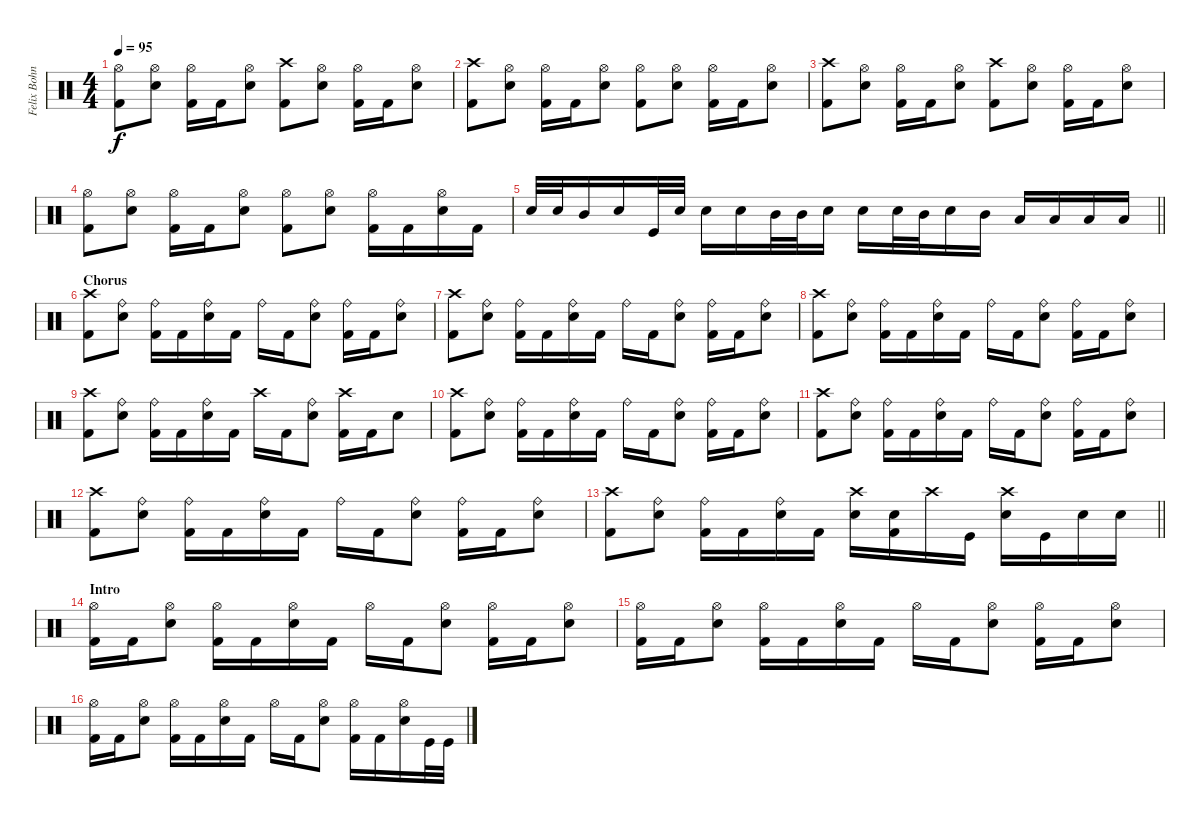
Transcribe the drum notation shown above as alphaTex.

\track ("Felix Bohnke" "Felix Bohn") {instrument percussion}
\staff {score}
\articulation defaults
\ts (4 4)
\tempo 95
\clef neutral
\ks c
("Hi-Hat (open)" "Kick (hit) 2").8{dy f} ("Hi-Hat (open)" "Snare (hit) 2").8 ("Hi-Hat (open)" "Kick (hit) 2").16 "Kick (hit) 2".16 ("Hi-Hat (open)" "Snare (hit) 2").8 ("Crash high (hit)" "Kick (hit) 2").8 ("Hi-Hat (open)" "Snare (hit) 2").8 ("Hi-Hat (open)" "Kick (hit) 2").16 "Kick (hit) 2".16 ("Hi-Hat (open)" "Snare (hit) 2").8 |
("Crash high (hit)" "Kick (hit) 2").8 ("Hi-Hat (open)" "Snare (hit) 2").8 ("Hi-Hat (open)" "Kick (hit) 2").16 "Kick (hit) 2".16 ("Hi-Hat (open)" "Snare (hit) 2").8 ("Hi-Hat (open)" "Kick (hit) 2").8 ("Hi-Hat (open)" "Snare (hit) 2").8 ("Hi-Hat (open)" "Kick (hit) 2").16 "Kick (hit) 2".16 ("Hi-Hat (open)" "Snare (hit) 2").8 |
("Crash high (hit)" "Kick (hit) 2").8 ("Hi-Hat (open)" "Snare (hit) 2").8 ("Hi-Hat (open)" "Kick (hit) 2").16 "Kick (hit) 2".16 ("Hi-Hat (open)" "Snare (hit) 2").8 ("Crash high (hit)" "Kick (hit) 2").8 ("Hi-Hat (open)" "Snare (hit) 2").8 ("Hi-Hat (open)" "Kick (hit) 2").16 "Kick (hit) 2".16 ("Hi-Hat (open)" "Snare (hit) 2").8 |
("Hi-Hat (open)" "Kick (hit) 2").8 ("Hi-Hat (open)" "Snare (hit) 2").8 ("Hi-Hat (open)" "Kick (hit) 2").16 "Kick (hit) 2".16 ("Hi-Hat (open)" "Snare (hit) 2").8 ("Hi-Hat (open)" "Kick (hit) 2").8 ("Hi-Hat (open)" "Snare (hit) 2").8 ("Hi-Hat (open)" "Kick (hit) 2").16 "Kick (hit) 2".16 ("Hi-Hat (open)" "Snare (hit) 2").16 "Kick (hit) 2".16 |
\barLineRight lightlight "Snare (hit) 2".32 "Snare (hit) 2".32 "Mid Tom (hit)".16 "Snare (hit) 2".16 "Kick (hit)".32 "Snare (hit) 2".32 "Snare (hit) 2".16 "Snare (hit) 2".16 "Mid Tom (hit)".32 "Mid Tom (hit)".32 "Snare (hit) 2".16 "Snare (hit) 2".16 "Snare (hit) 2".32 "Mid Tom (hit)".32 "Snare (hit) 2".16 "Mid Tom (hit)".16 "Low Tom (hit)".16 "Low Tom (hit)".16 "Low Tom (hit)".16 "Low Tom (hit)".16
|
\section ("" "Chorus")
("Crash high (hit)" "Kick (hit) 2").8 ("Ride (bell)" "Snare (hit) 2").8 ("Ride (bell)" "Kick (hit) 2").16 "Kick (hit) 2".16 ("Ride (bell)" "Snare (hit) 2").16 "Kick (hit) 2".16 "Ride (bell)".16 "Kick (hit) 2".16 ("Ride (bell)" "Snare (hit) 2").8 ("Ride (bell)" "Kick (hit) 2").16 "Kick (hit) 2".16 ("Ride (bell)" "Snare (hit) 2").8 |
("Crash high (hit)" "Kick (hit) 2").8 ("Ride (bell)" "Snare (hit) 2").8 ("Ride (bell)" "Kick (hit) 2").16 "Kick (hit) 2".16 ("Ride (bell)" "Snare (hit) 2").16 "Kick (hit) 2".16 "Ride (bell)".16 "Kick (hit) 2".16 ("Ride (bell)" "Snare (hit) 2").8 ("Ride (bell)" "Kick (hit) 2").16 "Kick (hit) 2".16 ("Ride (bell)" "Snare (hit) 2").8 |
("Crash high (hit)" "Kick (hit) 2").8 ("Ride (bell)" "Snare (hit) 2").8 ("Ride (bell)" "Kick (hit) 2").16 "Kick (hit) 2".16 ("Ride (bell)" "Snare (hit) 2").16 "Kick (hit) 2".16 "Ride (bell)".16 "Kick (hit) 2".16 ("Ride (bell)" "Snare (hit) 2").8 ("Ride (bell)" "Kick (hit) 2").16 "Kick (hit) 2".16 ("Ride (bell)" "Snare (hit) 2").8 |
("Crash high (hit)" "Kick (hit) 2").8 ("Ride (bell)" "Snare (hit) 2").8 ("Ride (bell)" "Kick (hit) 2").16 "Kick (hit) 2".16 ("Ride (bell)" "Snare (hit) 2").16 "Kick (hit) 2".16 "Crash high (hit)".16 "Kick (hit) 2".16 ("Ride (bell)" "Snare (hit) 2").8 ("Crash high (hit)" "Kick (hit) 2").16 "Kick (hit) 2".16 "Snare (hit) 2".8 |
("Crash high (hit)" "Kick (hit) 2").8 ("Ride (bell)" "Snare (hit) 2").8 ("Ride (bell)" "Kick (hit) 2").16 "Kick (hit) 2".16 ("Ride (bell)" "Snare (hit) 2").16 "Kick (hit) 2".16 "Ride (bell)".16 "Kick (hit) 2".16 ("Ride (bell)" "Snare (hit) 2").8 ("Ride (bell)" "Kick (hit) 2").16 "Kick (hit) 2".16 ("Ride (bell)" "Snare (hit) 2").8 |
("Crash high (hit)" "Kick (hit) 2").8 ("Ride (bell)" "Snare (hit) 2").8 ("Ride (bell)" "Kick (hit) 2").16 "Kick (hit) 2".16 ("Ride (bell)" "Snare (hit) 2").16 "Kick (hit) 2".16 "Ride (bell)".16 "Kick (hit) 2".16 ("Ride (bell)" "Snare (hit) 2").8 ("Ride (bell)" "Kick (hit) 2").16 "Kick (hit) 2".16 ("Ride (bell)" "Snare (hit) 2").8 |
("Crash high (hit)" "Kick (hit) 2").8 ("Ride (bell)" "Snare (hit) 2").8 ("Ride (bell)" "Kick (hit) 2").16 "Kick (hit) 2".16 ("Ride (bell)" "Snare (hit) 2").16 "Kick (hit) 2".16 "Ride (bell)".16 "Kick (hit) 2".16 ("Ride (bell)" "Snare (hit) 2").8 ("Ride (bell)" "Kick (hit) 2").16 "Kick (hit) 2".16 ("Ride (bell)" "Snare (hit) 2").8 |
\barLineRight lightlight
("Crash high (hit)" "Kick (hit) 2").8 ("Ride (bell)" "Snare (hit) 2").8 ("Ride (bell)" "Kick (hit) 2").16 "Kick (hit) 2".16 ("Ride (bell)" "Snare (hit) 2").16 "Kick (hit) 2".16 ("Snare (hit) 2" "Crash high (hit)").16 ("Snare (hit) 2" "Kick (hit) 2").16 "Crash high (hit)".16 "Kick (hit)".16 ("Crash high (hit)" "Snare (hit) 2").16 "Kick (hit)".16 "Snare (hit) 2".16 "Snare (hit) 2".16 |
\section ("" "Intro")
("Kick (hit) 2" "Hi-Hat (open)").16 "Kick (hit) 2".16 ("Snare (hit) 2" "Hi-Hat (open)").8 ("Kick (hit) 2" "Hi-Hat (open)").16 "Kick (hit) 2".16 ("Snare (hit) 2" "Hi-Hat (open)").16 "Kick (hit) 2".16 "Hi-Hat (open)".16 "Kick (hit) 2".16 ("Snare (hit) 2" "Hi-Hat (open)").8 ("Kick (hit) 2" "Hi-Hat (open)").16 "Kick (hit) 2".16 ("Snare (hit) 2" "Hi-Hat (open)").8 |
("Kick (hit) 2" "Hi-Hat (open)").16 "Kick (hit) 2".16 ("Snare (hit) 2" "Hi-Hat (open)").8 ("Kick (hit) 2" "Hi-Hat (open)").16 "Kick (hit) 2".16 ("Snare (hit) 2" "Hi-Hat (open)").16 "Kick (hit) 2".16 "Hi-Hat (open)".16 "Kick (hit) 2".16 ("Snare (hit) 2" "Hi-Hat (open)").8 ("Kick (hit) 2" "Hi-Hat (open)").16 "Kick (hit) 2".16 ("Snare (hit) 2" "Hi-Hat (open)").8 |
("Kick (hit) 2" "Hi-Hat (open)").16 "Kick (hit) 2".16 ("Snare (hit) 2" "Hi-Hat (open)").8 ("Kick (hit) 2" "Hi-Hat (open)").16 "Kick (hit) 2".16 ("Snare (hit) 2" "Hi-Hat (open)").16 "Kick (hit) 2".16 "Hi-Hat (open)".16 "Kick (hit) 2".16 ("Snare (hit) 2" "Hi-Hat (open)").8 ("Kick (hit) 2" "Hi-Hat (open)").16 "Kick (hit) 2".16 ("Snare (hit) 2" "Hi-Hat (open)").16 "Kick (hit)".32 "Kick (hit)".32
